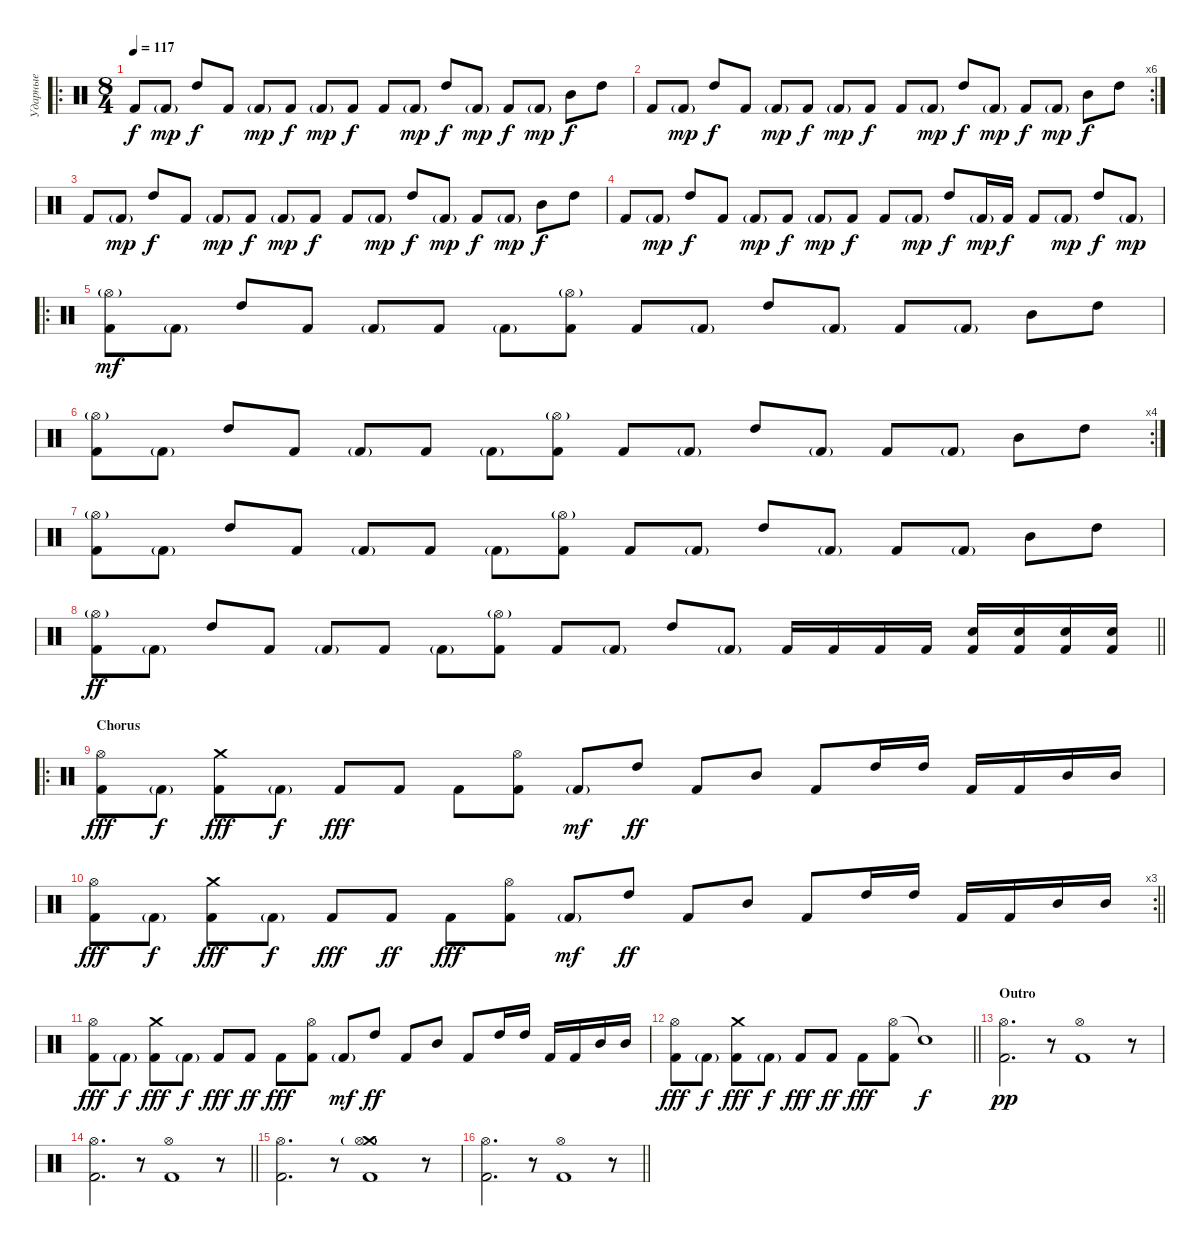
\track ("Ударные" "Ударные") {instrument percussion}
\staff {score}
\articulation defaults
\ro
\ts (8 4)
\tempo 117
\clef neutral
\ks c "Kick (hit) 2".8{dy f} "Kick (hit) 2"{g}.8{dy mp} "High Tom (hit)".8{dy f} "Kick (hit) 2".8 "Kick (hit) 2"{g}.8{dy mp} "Kick (hit) 2".8{dy f} "Kick (hit) 2"{g}.8{dy mp} "Kick (hit) 2".8{dy f} "Kick (hit) 2".8 "Kick (hit) 2"{g}.8{dy mp} "High Tom (hit)".8{dy f} "Kick (hit) 2"{g}.8{dy mp} "Kick (hit) 2".8{dy f} "Kick (hit) 2"{g}.8{dy mp} "Mid Tom (hit)".8{dy f} "High Tom (hit)".8
|
\rc 6 "Kick (hit) 2".8 "Kick (hit) 2"{g}.8{dy mp} "High Tom (hit)".8{dy f} "Kick (hit) 2".8 "Kick (hit) 2"{g}.8{dy mp} "Kick (hit) 2".8{dy f} "Kick (hit) 2"{g}.8{dy mp} "Kick (hit) 2".8{dy f} "Kick (hit) 2".8 "Kick (hit) 2"{g}.8{dy mp} "High Tom (hit)".8{dy f} "Kick (hit) 2"{g}.8{dy mp} "Kick (hit) 2".8{dy f} "Kick (hit) 2"{g}.8{dy mp} "Mid Tom (hit)".8{dy f} "High Tom (hit)".8
|
"Kick (hit) 2".8 "Kick (hit) 2"{g}.8{dy mp} "High Tom (hit)".8{dy f} "Kick (hit) 2".8 "Kick (hit) 2"{g}.8{dy mp} "Kick (hit) 2".8{dy f} "Kick (hit) 2"{g}.8{dy mp} "Kick (hit) 2".8{dy f} "Kick (hit) 2".8 "Kick (hit) 2"{g}.8{dy mp} "High Tom (hit)".8{dy f} "Kick (hit) 2"{g}.8{dy mp} "Kick (hit) 2".8{dy f} "Kick (hit) 2"{g}.8{dy mp} "Mid Tom (hit)".8{dy f} "High Tom (hit)".8 |
"Kick (hit) 2".8 "Kick (hit) 2"{g}.8{dy mp} "High Tom (hit)".8{dy f} "Kick (hit) 2".8 "Kick (hit) 2"{g}.8{dy mp} "Kick (hit) 2".8{dy f} "Kick (hit) 2"{g}.8{dy mp} "Kick (hit) 2".8{dy f} "Kick (hit) 2".8 "Kick (hit) 2"{g}.8{dy mp} "High Tom (hit)".8{dy f} "Kick (hit) 2"{g}.16{dy mp} "Kick (hit) 2".16{dy f} "Kick (hit) 2".8 "Kick (hit) 2"{g}.8{dy mp} "High Tom (hit)".8{dy f} "Kick (hit) 2"{g}.8{dy mp} |
\ro
("Hi-Hat (open)"{g} "Kick (hit) 2").8{dy mf} "Kick (hit) 2"{g}.8 "High Tom (hit)".8 "Kick (hit) 2".8 "Kick (hit) 2"{g}.8 "Kick (hit) 2".8 "Kick (hit) 2"{g}.8 ("Hi-Hat (open)"{g} "Kick (hit) 2").8 "Kick (hit) 2".8 "Kick (hit) 2"{g}.8 "High Tom (hit)".8 "Kick (hit) 2"{g}.8 "Kick (hit) 2".8 "Kick (hit) 2"{g}.8 "Mid Tom (hit)".8 "High Tom (hit)".8 |
\rc 4
("Hi-Hat (open)"{g} "Kick (hit) 2").8 "Kick (hit) 2"{g}.8 "High Tom (hit)".8 "Kick (hit) 2".8 "Kick (hit) 2"{g}.8 "Kick (hit) 2".8 "Kick (hit) 2"{g}.8 ("Hi-Hat (open)"{g} "Kick (hit) 2").8 "Kick (hit) 2".8 "Kick (hit) 2"{g}.8 "High Tom (hit)".8 "Kick (hit) 2"{g}.8 "Kick (hit) 2".8 "Kick (hit) 2"{g}.8 "Mid Tom (hit)".8 "High Tom (hit)".8 |
("Hi-Hat (open)"{g} "Kick (hit) 2").8 "Kick (hit) 2"{g}.8 "High Tom (hit)".8 "Kick (hit) 2".8 "Kick (hit) 2"{g}.8 "Kick (hit) 2".8 "Kick (hit) 2"{g}.8 ("Hi-Hat (open)"{g} "Kick (hit) 2").8 "Kick (hit) 2".8 "Kick (hit) 2"{g}.8 "High Tom (hit)".8 "Kick (hit) 2"{g}.8 "Kick (hit) 2".8 "Kick (hit) 2"{g}.8 "Mid Tom (hit)".8 "High Tom (hit)".8 |
\barLineRight lightlight
("Hi-Hat (open)"{g} "Kick (hit) 2").8{dy ff} "Kick (hit) 2"{g}.8 "High Tom (hit)".8 "Kick (hit) 2".8 "Kick (hit) 2"{g}.8 "Kick (hit) 2".8 "Kick (hit) 2"{g}.8 ("Hi-Hat (open)"{g} "Kick (hit) 2").8 "Kick (hit) 2".8 "Kick (hit) 2"{g}.8 "High Tom (hit)".8 "Kick (hit) 2"{g}.8 "Kick (hit) 2".16 "Kick (hit) 2".16 "Kick (hit) 2".16 "Kick (hit) 2".16 ("Snare (hit) 2" "Kick (hit) 2").16 ("Snare (hit) 2" "Kick (hit) 2").16 ("Snare (hit) 2" "Kick (hit) 2").16 ("Snare (hit) 2" "Kick (hit) 2").16 |
\ro
\section ("" "Chorus")
("Hi-Hat (open)" "Kick (hit) 2").8{dy fff} "Kick (hit) 2"{g}.8{dy f} ("Crash medium (hit)" "Kick (hit) 2").8{dy fff} "Kick (hit) 2"{g}.8{dy f} "Kick (hit) 2".8{dy fff} "Kick (hit) 2".8 "Kick (hit) 2".8 ("Hi-Hat (open)" "Kick (hit) 2").8 "Kick (hit) 2"{g}.8{dy mf} "High Tom (hit)".8{dy ff} "Kick (hit) 2".8 "Mid Tom (hit)".8 "Kick (hit) 2".8 "High Tom (hit)".16 "High Tom (hit)".16 "Kick (hit) 2".16 "Kick (hit) 2".16 "Mid Tom (hit)".16 "Mid Tom (hit)".16 |
\rc 3
\barLineRight lightlight
("Hi-Hat (open)" "Kick (hit) 2").8{dy fff} "Kick (hit) 2"{g}.8{dy f} ("Crash medium (hit)" "Kick (hit) 2").8{dy fff} "Kick (hit) 2"{g}.8{dy f} "Kick (hit) 2".8{dy fff} "Kick (hit) 2".8{dy ff} "Kick (hit) 2".8{dy fff} ("Hi-Hat (open)" "Kick (hit) 2").8 "Kick (hit) 2"{g}.8{dy mf} "High Tom (hit)".8{dy ff} "Kick (hit) 2".8 "Mid Tom (hit)".8 "Kick (hit) 2".8 "High Tom (hit)".16 "High Tom (hit)".16 "Kick (hit) 2".16 "Kick (hit) 2".16 "Mid Tom (hit)".16 "Mid Tom (hit)".16 |
("Hi-Hat (open)" "Kick (hit) 2").8{dy fff} "Kick (hit) 2"{g}.8{dy f} ("Crash medium (hit)" "Kick (hit) 2").8{dy fff} "Kick (hit) 2"{g}.8{dy f} "Kick (hit) 2".8{dy fff} "Kick (hit) 2".8{dy ff} "Kick (hit) 2".8{dy fff} ("Hi-Hat (open)" "Kick (hit) 2").8 "Kick (hit) 2"{g}.8{dy mf} "High Tom (hit)".8{dy ff} "Kick (hit) 2".8 "Mid Tom (hit)".8 "Kick (hit) 2".8 "High Tom (hit)".16 "High Tom (hit)".16 "Kick (hit) 2".16 "Kick (hit) 2".16 "Mid Tom (hit)".16 "Mid Tom (hit)".16 |
\barLineRight lightlight
("Hi-Hat (open)" "Kick (hit) 2").8{dy fff} "Kick (hit) 2"{g}.8{dy f} ("Crash medium (hit)" "Kick (hit) 2").8{dy fff} "Kick (hit) 2"{g}.8{dy f} "Kick (hit) 2".8{dy fff} "Kick (hit) 2".8{dy ff} "Kick (hit) 2".8{dy fff} ("Hi-Hat (open)" "Kick (hit) 2").8 "Snare (hit)"{t}.1{dy f} |
\section ("" "Outro")
("Hi-Hat (open)" "Kick (hit) 2").2{d dy pp} r.8 ("Hi-Hat (open)" "Kick (hit) 2").1 r.8 |
\barLineRight lightlight
("Hi-Hat (open)" "Kick (hit) 2").2{d} r.8 ("Hi-Hat (open)" "Kick (hit) 2").1 r.8 |
("Hi-Hat (open)" "Kick (hit) 2").2{d} r.8 ("Crash medium (hit)"{g} "Hi-Hat (open)" "Kick (hit) 2").1 r.8 |
\barLineRight lightlight
("Hi-Hat (open)" "Kick (hit) 2").2{d} r.8 ("Hi-Hat (open)" "Kick (hit) 2").1 r.8
